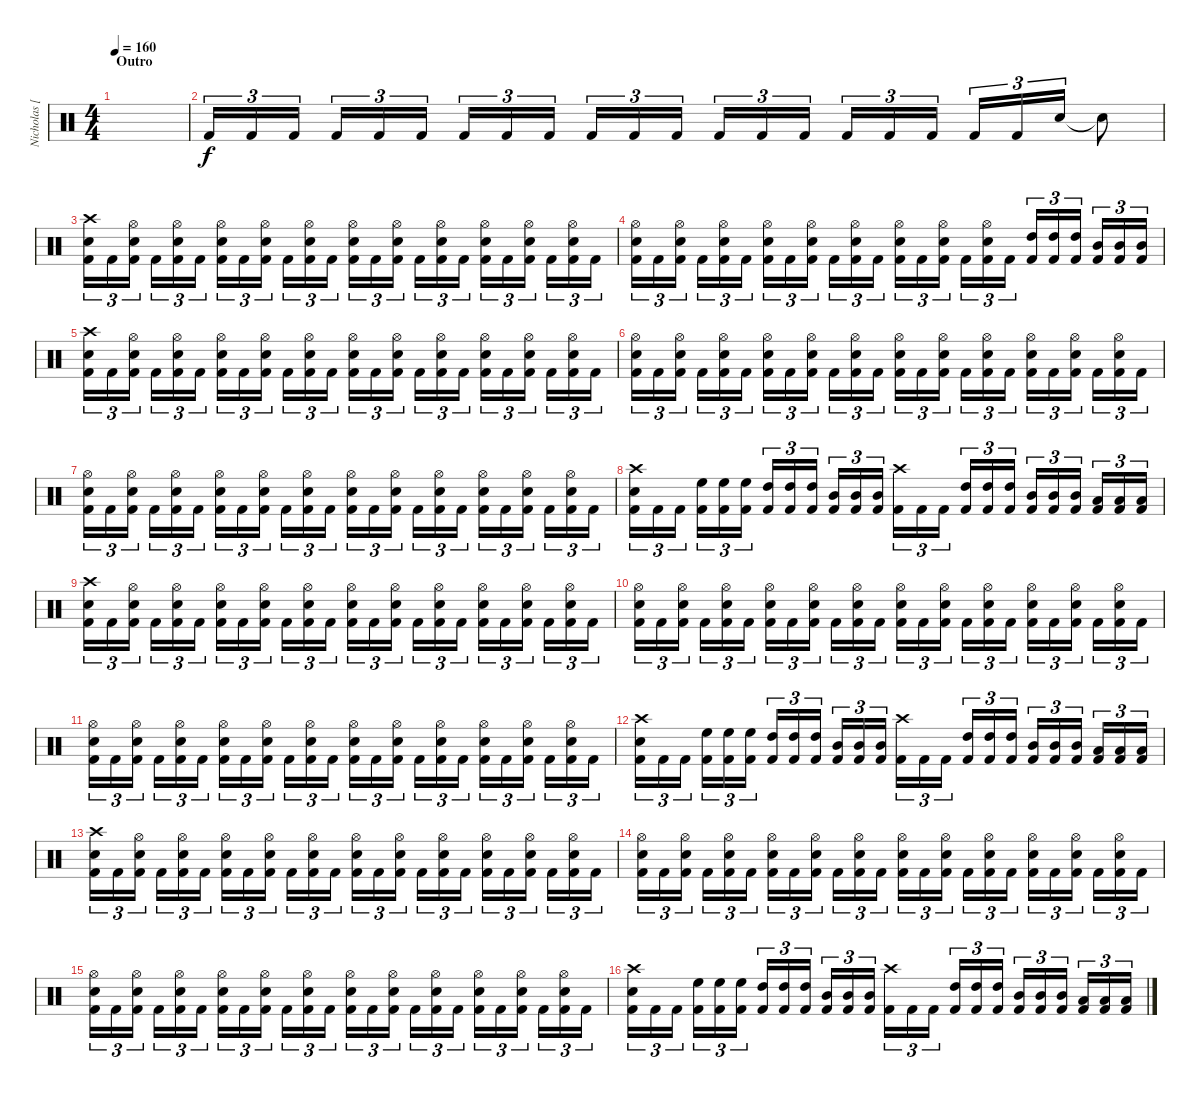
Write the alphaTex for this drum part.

\track ("Nicholas [Percussion]" "Nicholas [") {instrument percussion}
\staff {score}
\articulation defaults
\ts (4 4)
\section ("" "Outro")
\tempo 160
\clef neutral
\ks c
|
"Kick (hit) 2".16{tu (3 2)} "Kick (hit) 2".16{tu (3 2)} "Kick (hit) 2".16{tu (3 2)} "Kick (hit) 2".16{tu (3 2)} "Kick (hit) 2".16{tu (3 2)} "Kick (hit) 2".16{tu (3 2)} "Kick (hit) 2".16{tu (3 2)} "Kick (hit) 2".16{tu (3 2)} "Kick (hit) 2".16{tu (3 2)} "Kick (hit) 2".16{tu (3 2)} "Kick (hit) 2".16{tu (3 2)} "Kick (hit) 2".16{tu (3 2)} "Kick (hit) 2".16{tu (3 2)} "Kick (hit) 2".16{tu (3 2)} "Kick (hit) 2".16{tu (3 2)} "Kick (hit) 2".16{tu (3 2)} "Kick (hit) 2".16{tu (3 2)} "Kick (hit) 2".16{tu (3 2)} "Kick (hit) 2".16{tu (3 2)} "Kick (hit) 2".16{tu (3 2)} "Snare (hit) 2".16{tu (3 2)} "Snare (hit) 2"{t}.8 |
("Kick (hit) 2" "Snare (hit) 2" "Crash high (hit)").16{tu (3 2)} "Kick (hit) 2".16{tu (3 2)} ("Kick (hit) 2" "Snare (hit) 2" "Hi-Hat (open)").16{tu (3 2)} "Kick (hit) 2".16{tu (3 2)} ("Kick (hit) 2" "Snare (hit) 2" "Hi-Hat (open)").16{tu (3 2)} "Kick (hit) 2".16{tu (3 2)} ("Kick (hit) 2" "Snare (hit) 2" "Hi-Hat (open)").16{tu (3 2)} "Kick (hit) 2".16{tu (3 2)} ("Kick (hit) 2" "Snare (hit) 2" "Hi-Hat (open)").16{tu (3 2)} "Kick (hit) 2".16{tu (3 2)} ("Kick (hit) 2" "Snare (hit) 2" "Hi-Hat (open)").16{tu (3 2)} "Kick (hit) 2".16{tu (3 2)} ("Kick (hit) 2" "Snare (hit) 2" "Hi-Hat (open)").16{tu (3 2)} "Kick (hit) 2".16{tu (3 2)} ("Kick (hit) 2" "Snare (hit) 2" "Hi-Hat (open)").16{tu (3 2)} "Kick (hit) 2".16{tu (3 2)} ("Kick (hit) 2" "Snare (hit) 2" "Hi-Hat (open)").16{tu (3 2)} "Kick (hit) 2".16{tu (3 2)} ("Kick (hit) 2" "Snare (hit) 2" "Hi-Hat (open)").16{tu (3 2)} "Kick (hit) 2".16{tu (3 2)} ("Kick (hit) 2" "Snare (hit) 2" "Hi-Hat (open)").16{tu (3 2)} "Kick (hit) 2".16{tu (3 2)} ("Kick (hit) 2" "Snare (hit) 2" "Hi-Hat (open)").16{tu (3 2)} "Kick (hit) 2".16{tu (3 2)} |
("Kick (hit) 2" "Snare (hit) 2" "Hi-Hat (open)").16{tu (3 2)} "Kick (hit) 2".16{tu (3 2)} ("Kick (hit) 2" "Snare (hit) 2" "Hi-Hat (open)").16{tu (3 2)} "Kick (hit) 2".16{tu (3 2)} ("Kick (hit) 2" "Snare (hit) 2" "Hi-Hat (open)").16{tu (3 2)} "Kick (hit) 2".16{tu (3 2)} ("Kick (hit) 2" "Snare (hit) 2" "Hi-Hat (open)").16{tu (3 2)} "Kick (hit) 2".16{tu (3 2)} ("Kick (hit) 2" "Snare (hit) 2" "Hi-Hat (open)").16{tu (3 2)} "Kick (hit) 2".16{tu (3 2)} ("Kick (hit) 2" "Snare (hit) 2" "Hi-Hat (open)").16{tu (3 2)} "Kick (hit) 2".16{tu (3 2)} ("Kick (hit) 2" "Snare (hit) 2" "Hi-Hat (open)").16{tu (3 2)} "Kick (hit) 2".16{tu (3 2)} ("Kick (hit) 2" "Snare (hit) 2" "Hi-Hat (open)").16{tu (3 2)} "Kick (hit) 2".16{tu (3 2)} ("Kick (hit) 2" "Snare (hit) 2" "Hi-Hat (open)").16{tu (3 2)} "Kick (hit) 2".16{tu (3 2)} ("Kick (hit) 2" "High Tom (hit)").16{tu (3 2)} ("Kick (hit) 2" "High Tom (hit)").16{tu (3 2)} ("Kick (hit) 2" "High Tom (hit)").16{tu (3 2)} ("Kick (hit) 2" "Mid Tom (hit)").16{tu (3 2)} ("Kick (hit) 2" "Mid Tom (hit)").16{tu (3 2)} ("Kick (hit) 2" "Mid Tom (hit)").16{tu (3 2)} |
("Kick (hit) 2" "Snare (hit) 2" "Crash high (hit)").16{tu (3 2)} "Kick (hit) 2".16{tu (3 2)} ("Kick (hit) 2" "Snare (hit) 2" "Hi-Hat (open)").16{tu (3 2)} "Kick (hit) 2".16{tu (3 2)} ("Kick (hit) 2" "Snare (hit) 2" "Hi-Hat (open)").16{tu (3 2)} "Kick (hit) 2".16{tu (3 2)} ("Kick (hit) 2" "Snare (hit) 2" "Hi-Hat (open)").16{tu (3 2)} "Kick (hit) 2".16{tu (3 2)} ("Kick (hit) 2" "Snare (hit) 2" "Hi-Hat (open)").16{tu (3 2)} "Kick (hit) 2".16{tu (3 2)} ("Kick (hit) 2" "Snare (hit) 2" "Hi-Hat (open)").16{tu (3 2)} "Kick (hit) 2".16{tu (3 2)} ("Kick (hit) 2" "Snare (hit) 2" "Hi-Hat (open)").16{tu (3 2)} "Kick (hit) 2".16{tu (3 2)} ("Kick (hit) 2" "Snare (hit) 2" "Hi-Hat (open)").16{tu (3 2)} "Kick (hit) 2".16{tu (3 2)} ("Kick (hit) 2" "Snare (hit) 2" "Hi-Hat (open)").16{tu (3 2)} "Kick (hit) 2".16{tu (3 2)} ("Kick (hit) 2" "Snare (hit) 2" "Hi-Hat (open)").16{tu (3 2)} "Kick (hit) 2".16{tu (3 2)} ("Kick (hit) 2" "Snare (hit) 2" "Hi-Hat (open)").16{tu (3 2)} "Kick (hit) 2".16{tu (3 2)} ("Kick (hit) 2" "Snare (hit) 2" "Hi-Hat (open)").16{tu (3 2)} "Kick (hit) 2".16{tu (3 2)} |
("Kick (hit) 2" "Snare (hit) 2" "Hi-Hat (open)").16{tu (3 2)} "Kick (hit) 2".16{tu (3 2)} ("Kick (hit) 2" "Snare (hit) 2" "Hi-Hat (open)").16{tu (3 2)} "Kick (hit) 2".16{tu (3 2)} ("Kick (hit) 2" "Snare (hit) 2" "Hi-Hat (open)").16{tu (3 2)} "Kick (hit) 2".16{tu (3 2)} ("Kick (hit) 2" "Snare (hit) 2" "Hi-Hat (open)").16{tu (3 2)} "Kick (hit) 2".16{tu (3 2)} ("Kick (hit) 2" "Snare (hit) 2" "Hi-Hat (open)").16{tu (3 2)} "Kick (hit) 2".16{tu (3 2)} ("Kick (hit) 2" "Snare (hit) 2" "Hi-Hat (open)").16{tu (3 2)} "Kick (hit) 2".16{tu (3 2)} ("Kick (hit) 2" "Snare (hit) 2" "Hi-Hat (open)").16{tu (3 2)} "Kick (hit) 2".16{tu (3 2)} ("Kick (hit) 2" "Snare (hit) 2" "Hi-Hat (open)").16{tu (3 2)} "Kick (hit) 2".16{tu (3 2)} ("Kick (hit) 2" "Snare (hit) 2" "Hi-Hat (open)").16{tu (3 2)} "Kick (hit) 2".16{tu (3 2)} ("Kick (hit) 2" "Snare (hit) 2" "Hi-Hat (open)").16{tu (3 2)} "Kick (hit) 2".16{tu (3 2)} ("Kick (hit) 2" "Snare (hit) 2" "Hi-Hat (open)").16{tu (3 2)} "Kick (hit) 2".16{tu (3 2)} ("Kick (hit) 2" "Snare (hit) 2" "Hi-Hat (open)").16{tu (3 2)} "Kick (hit) 2".16{tu (3 2)} |
("Kick (hit) 2" "Snare (hit) 2" "Hi-Hat (open)").16{tu (3 2)} "Kick (hit) 2".16{tu (3 2)} ("Kick (hit) 2" "Snare (hit) 2" "Hi-Hat (open)").16{tu (3 2)} "Kick (hit) 2".16{tu (3 2)} ("Kick (hit) 2" "Snare (hit) 2" "Hi-Hat (open)").16{tu (3 2)} "Kick (hit) 2".16{tu (3 2)} ("Kick (hit) 2" "Snare (hit) 2" "Hi-Hat (open)").16{tu (3 2)} "Kick (hit) 2".16{tu (3 2)} ("Kick (hit) 2" "Snare (hit) 2" "Hi-Hat (open)").16{tu (3 2)} "Kick (hit) 2".16{tu (3 2)} ("Kick (hit) 2" "Snare (hit) 2" "Hi-Hat (open)").16{tu (3 2)} "Kick (hit) 2".16{tu (3 2)} ("Kick (hit) 2" "Snare (hit) 2" "Hi-Hat (open)").16{tu (3 2)} "Kick (hit) 2".16{tu (3 2)} ("Kick (hit) 2" "Snare (hit) 2" "Hi-Hat (open)").16{tu (3 2)} "Kick (hit) 2".16{tu (3 2)} ("Kick (hit) 2" "Snare (hit) 2" "Hi-Hat (open)").16{tu (3 2)} "Kick (hit) 2".16{tu (3 2)} ("Kick (hit) 2" "Snare (hit) 2" "Hi-Hat (open)").16{tu (3 2)} "Kick (hit) 2".16{tu (3 2)} ("Kick (hit) 2" "Snare (hit) 2" "Hi-Hat (open)").16{tu (3 2)} "Kick (hit) 2".16{tu (3 2)} ("Kick (hit) 2" "Snare (hit) 2" "Hi-Hat (open)").16{tu (3 2)} "Kick (hit) 2".16{tu (3 2)} |
("Kick (hit) 2" "Snare (hit) 2" "Crash high (hit)").16{tu (3 2)} "Kick (hit) 2".16{tu (3 2)} "Kick (hit) 2".16{tu (3 2)} ("Kick (hit) 2" "High Floor Tom (hit)").16{tu (3 2)} ("Kick (hit) 2" "High Floor Tom (hit)").16{tu (3 2)} ("Kick (hit) 2" "High Floor Tom (hit)").16{tu (3 2)} ("Kick (hit) 2" "High Tom (hit)").16{tu (3 2)} ("Kick (hit) 2" "High Tom (hit)").16{tu (3 2)} ("Kick (hit) 2" "High Tom (hit)").16{tu (3 2)} ("Kick (hit) 2" "Mid Tom (hit)").16{tu (3 2)} ("Kick (hit) 2" "Mid Tom (hit)").16{tu (3 2)} ("Kick (hit) 2" "Mid Tom (hit)").16{tu (3 2)} ("Kick (hit) 2" "Crash high (hit)").16{tu (3 2)} "Kick (hit) 2".16{tu (3 2)} "Kick (hit) 2".16{tu (3 2)} ("Kick (hit) 2" "High Tom (hit)").16{tu (3 2)} ("Kick (hit) 2" "High Tom (hit)").16{tu (3 2)} ("Kick (hit) 2" "High Tom (hit)").16{tu (3 2)} ("Kick (hit) 2" "Mid Tom (hit)").16{tu (3 2)} ("Kick (hit) 2" "Mid Tom (hit)").16{tu (3 2)} ("Kick (hit) 2" "Mid Tom (hit)").16{tu (3 2)} ("Kick (hit) 2" "Low Tom (hit)").16{tu (3 2)} ("Kick (hit) 2" "Low Tom (hit)").16{tu (3 2)} ("Kick (hit) 2" "Low Tom (hit)").16{tu (3 2)} |
("Kick (hit) 2" "Snare (hit) 2" "Crash high (hit)").16{tu (3 2)} "Kick (hit) 2".16{tu (3 2)} ("Kick (hit) 2" "Snare (hit) 2" "Hi-Hat (open)").16{tu (3 2)} "Kick (hit) 2".16{tu (3 2)} ("Kick (hit) 2" "Snare (hit) 2" "Hi-Hat (open)").16{tu (3 2)} "Kick (hit) 2".16{tu (3 2)} ("Kick (hit) 2" "Snare (hit) 2" "Hi-Hat (open)").16{tu (3 2)} "Kick (hit) 2".16{tu (3 2)} ("Kick (hit) 2" "Snare (hit) 2" "Hi-Hat (open)").16{tu (3 2)} "Kick (hit) 2".16{tu (3 2)} ("Kick (hit) 2" "Snare (hit) 2" "Hi-Hat (open)").16{tu (3 2)} "Kick (hit) 2".16{tu (3 2)} ("Kick (hit) 2" "Snare (hit) 2" "Hi-Hat (open)").16{tu (3 2)} "Kick (hit) 2".16{tu (3 2)} ("Kick (hit) 2" "Snare (hit) 2" "Hi-Hat (open)").16{tu (3 2)} "Kick (hit) 2".16{tu (3 2)} ("Kick (hit) 2" "Snare (hit) 2" "Hi-Hat (open)").16{tu (3 2)} "Kick (hit) 2".16{tu (3 2)} ("Kick (hit) 2" "Snare (hit) 2" "Hi-Hat (open)").16{tu (3 2)} "Kick (hit) 2".16{tu (3 2)} ("Kick (hit) 2" "Snare (hit) 2" "Hi-Hat (open)").16{tu (3 2)} "Kick (hit) 2".16{tu (3 2)} ("Kick (hit) 2" "Snare (hit) 2" "Hi-Hat (open)").16{tu (3 2)} "Kick (hit) 2".16{tu (3 2)} |
("Kick (hit) 2" "Snare (hit) 2" "Hi-Hat (open)").16{tu (3 2)} "Kick (hit) 2".16{tu (3 2)} ("Kick (hit) 2" "Snare (hit) 2" "Hi-Hat (open)").16{tu (3 2)} "Kick (hit) 2".16{tu (3 2)} ("Kick (hit) 2" "Snare (hit) 2" "Hi-Hat (open)").16{tu (3 2)} "Kick (hit) 2".16{tu (3 2)} ("Kick (hit) 2" "Snare (hit) 2" "Hi-Hat (open)").16{tu (3 2)} "Kick (hit) 2".16{tu (3 2)} ("Kick (hit) 2" "Snare (hit) 2" "Hi-Hat (open)").16{tu (3 2)} "Kick (hit) 2".16{tu (3 2)} ("Kick (hit) 2" "Snare (hit) 2" "Hi-Hat (open)").16{tu (3 2)} "Kick (hit) 2".16{tu (3 2)} ("Kick (hit) 2" "Snare (hit) 2" "Hi-Hat (open)").16{tu (3 2)} "Kick (hit) 2".16{tu (3 2)} ("Kick (hit) 2" "Snare (hit) 2" "Hi-Hat (open)").16{tu (3 2)} "Kick (hit) 2".16{tu (3 2)} ("Kick (hit) 2" "Snare (hit) 2" "Hi-Hat (open)").16{tu (3 2)} "Kick (hit) 2".16{tu (3 2)} ("Kick (hit) 2" "Snare (hit) 2" "Hi-Hat (open)").16{tu (3 2)} "Kick (hit) 2".16{tu (3 2)} ("Kick (hit) 2" "Snare (hit) 2" "Hi-Hat (open)").16{tu (3 2)} "Kick (hit) 2".16{tu (3 2)} ("Kick (hit) 2" "Snare (hit) 2" "Hi-Hat (open)").16{tu (3 2)} "Kick (hit) 2".16{tu (3 2)} |
("Kick (hit) 2" "Snare (hit) 2" "Hi-Hat (open)").16{tu (3 2)} "Kick (hit) 2".16{tu (3 2)} ("Kick (hit) 2" "Snare (hit) 2" "Hi-Hat (open)").16{tu (3 2)} "Kick (hit) 2".16{tu (3 2)} ("Kick (hit) 2" "Snare (hit) 2" "Hi-Hat (open)").16{tu (3 2)} "Kick (hit) 2".16{tu (3 2)} ("Kick (hit) 2" "Snare (hit) 2" "Hi-Hat (open)").16{tu (3 2)} "Kick (hit) 2".16{tu (3 2)} ("Kick (hit) 2" "Snare (hit) 2" "Hi-Hat (open)").16{tu (3 2)} "Kick (hit) 2".16{tu (3 2)} ("Kick (hit) 2" "Snare (hit) 2" "Hi-Hat (open)").16{tu (3 2)} "Kick (hit) 2".16{tu (3 2)} ("Kick (hit) 2" "Snare (hit) 2" "Hi-Hat (open)").16{tu (3 2)} "Kick (hit) 2".16{tu (3 2)} ("Kick (hit) 2" "Snare (hit) 2" "Hi-Hat (open)").16{tu (3 2)} "Kick (hit) 2".16{tu (3 2)} ("Kick (hit) 2" "Snare (hit) 2" "Hi-Hat (open)").16{tu (3 2)} "Kick (hit) 2".16{tu (3 2)} ("Kick (hit) 2" "Snare (hit) 2" "Hi-Hat (open)").16{tu (3 2)} "Kick (hit) 2".16{tu (3 2)} ("Kick (hit) 2" "Snare (hit) 2" "Hi-Hat (open)").16{tu (3 2)} "Kick (hit) 2".16{tu (3 2)} ("Kick (hit) 2" "Snare (hit) 2" "Hi-Hat (open)").16{tu (3 2)} "Kick (hit) 2".16{tu (3 2)} |
("Kick (hit) 2" "Snare (hit) 2" "Crash high (hit)").16{tu (3 2)} "Kick (hit) 2".16{tu (3 2)} "Kick (hit) 2".16{tu (3 2)} ("Kick (hit) 2" "High Floor Tom (hit)").16{tu (3 2)} ("Kick (hit) 2" "High Floor Tom (hit)").16{tu (3 2)} ("Kick (hit) 2" "High Floor Tom (hit)").16{tu (3 2)} ("Kick (hit) 2" "High Tom (hit)").16{tu (3 2)} ("Kick (hit) 2" "High Tom (hit)").16{tu (3 2)} ("Kick (hit) 2" "High Tom (hit)").16{tu (3 2)} ("Kick (hit) 2" "Mid Tom (hit)").16{tu (3 2)} ("Kick (hit) 2" "Mid Tom (hit)").16{tu (3 2)} ("Kick (hit) 2" "Mid Tom (hit)").16{tu (3 2)} ("Kick (hit) 2" "Crash high (hit)").16{tu (3 2)} "Kick (hit) 2".16{tu (3 2)} "Kick (hit) 2".16{tu (3 2)} ("Kick (hit) 2" "High Tom (hit)").16{tu (3 2)} ("Kick (hit) 2" "High Tom (hit)").16{tu (3 2)} ("Kick (hit) 2" "High Tom (hit)").16{tu (3 2)} ("Kick (hit) 2" "Mid Tom (hit)").16{tu (3 2)} ("Kick (hit) 2" "Mid Tom (hit)").16{tu (3 2)} ("Kick (hit) 2" "Mid Tom (hit)").16{tu (3 2)} ("Kick (hit) 2" "Low Tom (hit)").16{tu (3 2)} ("Kick (hit) 2" "Low Tom (hit)").16{tu (3 2)} ("Kick (hit) 2" "Low Tom (hit)").16{tu (3 2)} |
("Kick (hit) 2" "Snare (hit) 2" "Crash high (hit)").16{tu (3 2)} "Kick (hit) 2".16{tu (3 2)} ("Kick (hit) 2" "Snare (hit) 2" "Hi-Hat (open)").16{tu (3 2)} "Kick (hit) 2".16{tu (3 2)} ("Kick (hit) 2" "Snare (hit) 2" "Hi-Hat (open)").16{tu (3 2)} "Kick (hit) 2".16{tu (3 2)} ("Kick (hit) 2" "Snare (hit) 2" "Hi-Hat (open)").16{tu (3 2)} "Kick (hit) 2".16{tu (3 2)} ("Kick (hit) 2" "Snare (hit) 2" "Hi-Hat (open)").16{tu (3 2)} "Kick (hit) 2".16{tu (3 2)} ("Kick (hit) 2" "Snare (hit) 2" "Hi-Hat (open)").16{tu (3 2)} "Kick (hit) 2".16{tu (3 2)} ("Kick (hit) 2" "Snare (hit) 2" "Hi-Hat (open)").16{tu (3 2)} "Kick (hit) 2".16{tu (3 2)} ("Kick (hit) 2" "Snare (hit) 2" "Hi-Hat (open)").16{tu (3 2)} "Kick (hit) 2".16{tu (3 2)} ("Kick (hit) 2" "Snare (hit) 2" "Hi-Hat (open)").16{tu (3 2)} "Kick (hit) 2".16{tu (3 2)} ("Kick (hit) 2" "Snare (hit) 2" "Hi-Hat (open)").16{tu (3 2)} "Kick (hit) 2".16{tu (3 2)} ("Kick (hit) 2" "Snare (hit) 2" "Hi-Hat (open)").16{tu (3 2)} "Kick (hit) 2".16{tu (3 2)} ("Kick (hit) 2" "Snare (hit) 2" "Hi-Hat (open)").16{tu (3 2)} "Kick (hit) 2".16{tu (3 2)} |
("Kick (hit) 2" "Snare (hit) 2" "Hi-Hat (open)").16{tu (3 2)} "Kick (hit) 2".16{tu (3 2)} ("Kick (hit) 2" "Snare (hit) 2" "Hi-Hat (open)").16{tu (3 2)} "Kick (hit) 2".16{tu (3 2)} ("Kick (hit) 2" "Snare (hit) 2" "Hi-Hat (open)").16{tu (3 2)} "Kick (hit) 2".16{tu (3 2)} ("Kick (hit) 2" "Snare (hit) 2" "Hi-Hat (open)").16{tu (3 2)} "Kick (hit) 2".16{tu (3 2)} ("Kick (hit) 2" "Snare (hit) 2" "Hi-Hat (open)").16{tu (3 2)} "Kick (hit) 2".16{tu (3 2)} ("Kick (hit) 2" "Snare (hit) 2" "Hi-Hat (open)").16{tu (3 2)} "Kick (hit) 2".16{tu (3 2)} ("Kick (hit) 2" "Snare (hit) 2" "Hi-Hat (open)").16{tu (3 2)} "Kick (hit) 2".16{tu (3 2)} ("Kick (hit) 2" "Snare (hit) 2" "Hi-Hat (open)").16{tu (3 2)} "Kick (hit) 2".16{tu (3 2)} ("Kick (hit) 2" "Snare (hit) 2" "Hi-Hat (open)").16{tu (3 2)} "Kick (hit) 2".16{tu (3 2)} ("Kick (hit) 2" "Snare (hit) 2" "Hi-Hat (open)").16{tu (3 2)} "Kick (hit) 2".16{tu (3 2)} ("Kick (hit) 2" "Snare (hit) 2" "Hi-Hat (open)").16{tu (3 2)} "Kick (hit) 2".16{tu (3 2)} ("Kick (hit) 2" "Snare (hit) 2" "Hi-Hat (open)").16{tu (3 2)} "Kick (hit) 2".16{tu (3 2)} |
("Kick (hit) 2" "Snare (hit) 2" "Hi-Hat (open)").16{tu (3 2)} "Kick (hit) 2".16{tu (3 2)} ("Kick (hit) 2" "Snare (hit) 2" "Hi-Hat (open)").16{tu (3 2)} "Kick (hit) 2".16{tu (3 2)} ("Kick (hit) 2" "Snare (hit) 2" "Hi-Hat (open)").16{tu (3 2)} "Kick (hit) 2".16{tu (3 2)} ("Kick (hit) 2" "Snare (hit) 2" "Hi-Hat (open)").16{tu (3 2)} "Kick (hit) 2".16{tu (3 2)} ("Kick (hit) 2" "Snare (hit) 2" "Hi-Hat (open)").16{tu (3 2)} "Kick (hit) 2".16{tu (3 2)} ("Kick (hit) 2" "Snare (hit) 2" "Hi-Hat (open)").16{tu (3 2)} "Kick (hit) 2".16{tu (3 2)} ("Kick (hit) 2" "Snare (hit) 2" "Hi-Hat (open)").16{tu (3 2)} "Kick (hit) 2".16{tu (3 2)} ("Kick (hit) 2" "Snare (hit) 2" "Hi-Hat (open)").16{tu (3 2)} "Kick (hit) 2".16{tu (3 2)} ("Kick (hit) 2" "Snare (hit) 2" "Hi-Hat (open)").16{tu (3 2)} "Kick (hit) 2".16{tu (3 2)} ("Kick (hit) 2" "Snare (hit) 2" "Hi-Hat (open)").16{tu (3 2)} "Kick (hit) 2".16{tu (3 2)} ("Kick (hit) 2" "Snare (hit) 2" "Hi-Hat (open)").16{tu (3 2)} "Kick (hit) 2".16{tu (3 2)} ("Kick (hit) 2" "Snare (hit) 2" "Hi-Hat (open)").16{tu (3 2)} "Kick (hit) 2".16{tu (3 2)} |
("Kick (hit) 2" "Snare (hit) 2" "Crash high (hit)").16{tu (3 2)} "Kick (hit) 2".16{tu (3 2)} "Kick (hit) 2".16{tu (3 2)} ("Kick (hit) 2" "High Floor Tom (hit)").16{tu (3 2)} ("Kick (hit) 2" "High Floor Tom (hit)").16{tu (3 2)} ("Kick (hit) 2" "High Floor Tom (hit)").16{tu (3 2)} ("Kick (hit) 2" "High Tom (hit)").16{tu (3 2)} ("Kick (hit) 2" "High Tom (hit)").16{tu (3 2)} ("Kick (hit) 2" "High Tom (hit)").16{tu (3 2)} ("Kick (hit) 2" "Mid Tom (hit)").16{tu (3 2)} ("Kick (hit) 2" "Mid Tom (hit)").16{tu (3 2)} ("Kick (hit) 2" "Mid Tom (hit)").16{tu (3 2)} ("Kick (hit) 2" "Crash high (hit)").16{tu (3 2)} "Kick (hit) 2".16{tu (3 2)} "Kick (hit) 2".16{tu (3 2)} ("Kick (hit) 2" "High Tom (hit)").16{tu (3 2)} ("Kick (hit) 2" "High Tom (hit)").16{tu (3 2)} ("Kick (hit) 2" "High Tom (hit)").16{tu (3 2)} ("Kick (hit) 2" "Mid Tom (hit)").16{tu (3 2)} ("Kick (hit) 2" "Mid Tom (hit)").16{tu (3 2)} ("Kick (hit) 2" "Mid Tom (hit)").16{tu (3 2)} ("Kick (hit) 2" "Low Tom (hit)").16{tu (3 2)} ("Kick (hit) 2" "Low Tom (hit)").16{tu (3 2)} ("Kick (hit) 2" "Low Tom (hit)").16{tu (3 2)}
